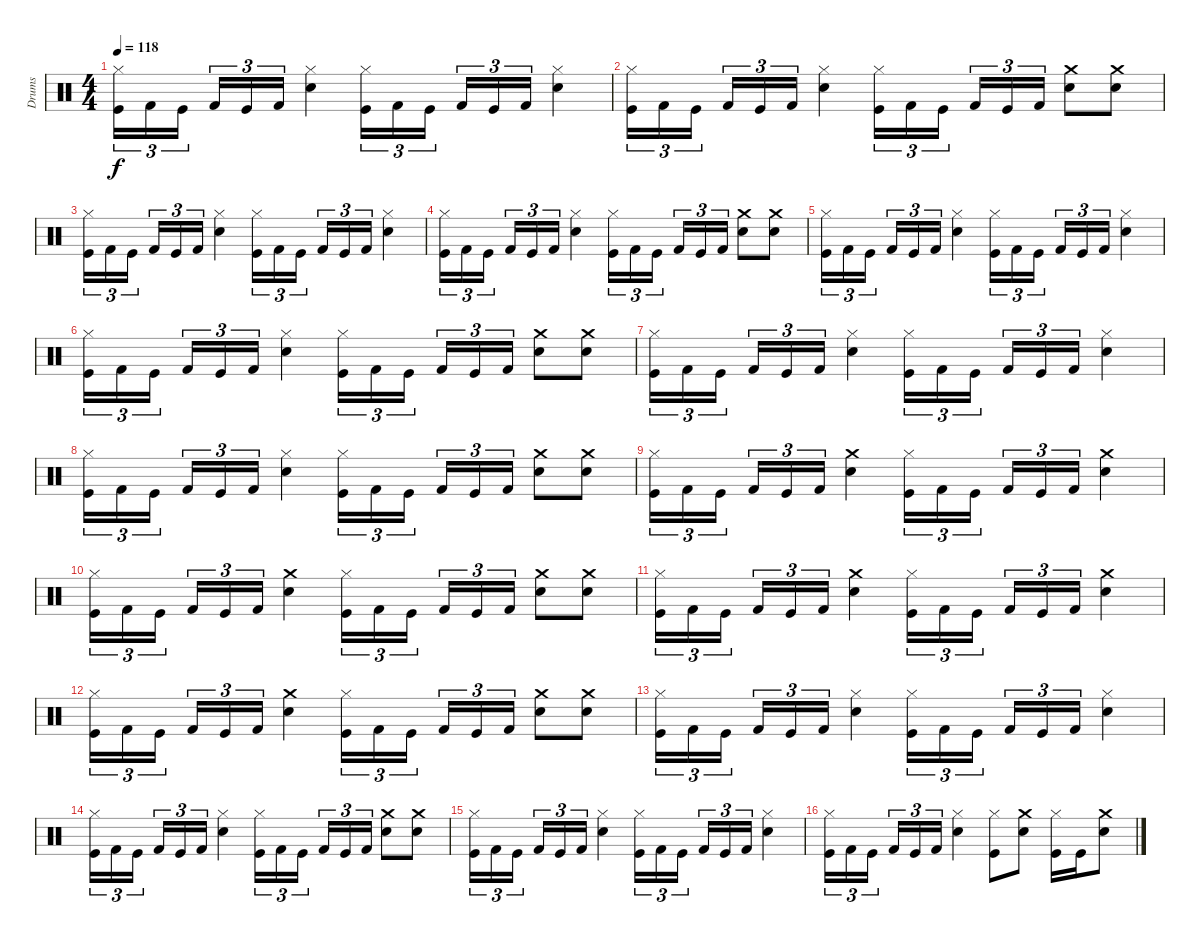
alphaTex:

\track ("Drums" "Drums") {instrument percussion}
\staff {score}
\articulation defaults
\ts (4 4)
\tempo 118
\clef neutral
\ks c
("Hi-Hat (closed)" "Kick (hit)").16{tu (3 2) dy f} "Kick (hit) 2".16{tu (3 2)} "Kick (hit)".16{tu (3 2)} "Kick (hit) 2".16{tu (3 2)} "Kick (hit)".16{tu (3 2)} "Kick (hit) 2".16{tu (3 2)} ("Snare (hit) 2" "Hi-Hat (closed)").4 ("Hi-Hat (closed)" "Kick (hit)").16{tu (3 2)} "Kick (hit) 2".16{tu (3 2)} "Kick (hit)".16{tu (3 2)} "Kick (hit) 2".16{tu (3 2)} "Kick (hit)".16{tu (3 2)} "Kick (hit) 2".16{tu (3 2)} ("Snare (hit) 2" "Hi-Hat (closed)").4 |
("Hi-Hat (closed)" "Kick (hit)").16{tu (3 2)} "Kick (hit) 2".16{tu (3 2)} "Kick (hit)".16{tu (3 2)} "Kick (hit) 2".16{tu (3 2)} "Kick (hit)".16{tu (3 2)} "Kick (hit) 2".16{tu (3 2)} ("Snare (hit) 2" "Hi-Hat (closed)").4 ("Hi-Hat (closed)" "Kick (hit)").16{tu (3 2)} "Kick (hit) 2".16{tu (3 2)} "Kick (hit)".16{tu (3 2)} "Kick (hit) 2".16{tu (3 2)} "Kick (hit)".16{tu (3 2)} "Kick (hit) 2".16{tu (3 2)} ("Snare (hit) 2" "Crash medium (hit)").8 ("Snare (hit) 2" "Crash medium (hit)").8 |
("Hi-Hat (closed)" "Kick (hit)").16{tu (3 2)} "Kick (hit) 2".16{tu (3 2)} "Kick (hit)".16{tu (3 2)} "Kick (hit) 2".16{tu (3 2)} "Kick (hit)".16{tu (3 2)} "Kick (hit) 2".16{tu (3 2)} ("Snare (hit) 2" "Hi-Hat (closed)").4 ("Hi-Hat (closed)" "Kick (hit)").16{tu (3 2)} "Kick (hit) 2".16{tu (3 2)} "Kick (hit)".16{tu (3 2)} "Kick (hit) 2".16{tu (3 2)} "Kick (hit)".16{tu (3 2)} "Kick (hit) 2".16{tu (3 2)} ("Snare (hit) 2" "Hi-Hat (closed)").4 |
("Hi-Hat (closed)" "Kick (hit)").16{tu (3 2)} "Kick (hit) 2".16{tu (3 2)} "Kick (hit)".16{tu (3 2)} "Kick (hit) 2".16{tu (3 2)} "Kick (hit)".16{tu (3 2)} "Kick (hit) 2".16{tu (3 2)} ("Snare (hit) 2" "Hi-Hat (closed)").4 ("Hi-Hat (closed)" "Kick (hit)").16{tu (3 2)} "Kick (hit) 2".16{tu (3 2)} "Kick (hit)".16{tu (3 2)} "Kick (hit) 2".16{tu (3 2)} "Kick (hit)".16{tu (3 2)} "Kick (hit) 2".16{tu (3 2)} ("Snare (hit) 2" "Crash medium (hit)").8 ("Snare (hit) 2" "Crash medium (hit)").8 |
("Hi-Hat (closed)" "Kick (hit)").16{tu (3 2)} "Kick (hit) 2".16{tu (3 2)} "Kick (hit)".16{tu (3 2)} "Kick (hit) 2".16{tu (3 2)} "Kick (hit)".16{tu (3 2)} "Kick (hit) 2".16{tu (3 2)} ("Snare (hit) 2" "Hi-Hat (closed)").4 ("Hi-Hat (closed)" "Kick (hit)").16{tu (3 2)} "Kick (hit) 2".16{tu (3 2)} "Kick (hit)".16{tu (3 2)} "Kick (hit) 2".16{tu (3 2)} "Kick (hit)".16{tu (3 2)} "Kick (hit) 2".16{tu (3 2)} ("Snare (hit) 2" "Hi-Hat (closed)").4 |
("Hi-Hat (closed)" "Kick (hit)").16{tu (3 2)} "Kick (hit) 2".16{tu (3 2)} "Kick (hit)".16{tu (3 2)} "Kick (hit) 2".16{tu (3 2)} "Kick (hit)".16{tu (3 2)} "Kick (hit) 2".16{tu (3 2)} ("Snare (hit) 2" "Hi-Hat (closed)").4 ("Hi-Hat (closed)" "Kick (hit)").16{tu (3 2)} "Kick (hit) 2".16{tu (3 2)} "Kick (hit)".16{tu (3 2)} "Kick (hit) 2".16{tu (3 2)} "Kick (hit)".16{tu (3 2)} "Kick (hit) 2".16{tu (3 2)} ("Snare (hit) 2" "Crash medium (hit)").8 ("Snare (hit) 2" "Crash medium (hit)").8 |
("Hi-Hat (closed)" "Kick (hit)").16{tu (3 2)} "Kick (hit) 2".16{tu (3 2)} "Kick (hit)".16{tu (3 2)} "Kick (hit) 2".16{tu (3 2)} "Kick (hit)".16{tu (3 2)} "Kick (hit) 2".16{tu (3 2)} ("Snare (hit) 2" "Hi-Hat (closed)").4 ("Hi-Hat (closed)" "Kick (hit)").16{tu (3 2)} "Kick (hit) 2".16{tu (3 2)} "Kick (hit)".16{tu (3 2)} "Kick (hit) 2".16{tu (3 2)} "Kick (hit)".16{tu (3 2)} "Kick (hit) 2".16{tu (3 2)} ("Snare (hit) 2" "Hi-Hat (closed)").4 |
("Hi-Hat (closed)" "Kick (hit)").16{tu (3 2)} "Kick (hit) 2".16{tu (3 2)} "Kick (hit)".16{tu (3 2)} "Kick (hit) 2".16{tu (3 2)} "Kick (hit)".16{tu (3 2)} "Kick (hit) 2".16{tu (3 2)} ("Snare (hit) 2" "Hi-Hat (closed)").4 ("Hi-Hat (closed)" "Kick (hit)").16{tu (3 2)} "Kick (hit) 2".16{tu (3 2)} "Kick (hit)".16{tu (3 2)} "Kick (hit) 2".16{tu (3 2)} "Kick (hit)".16{tu (3 2)} "Kick (hit) 2".16{tu (3 2)} ("Snare (hit) 2" "Crash medium (hit)").8 ("Snare (hit) 2" "Crash medium (hit)").8 |
("Hi-Hat (closed)" "Kick (hit)").16{tu (3 2)} "Kick (hit) 2".16{tu (3 2)} "Kick (hit)".16{tu (3 2)} "Kick (hit) 2".16{tu (3 2)} "Kick (hit)".16{tu (3 2)} "Kick (hit) 2".16{tu (3 2)} ("Crash medium (hit)" "Snare (hit) 2").4 ("Hi-Hat (closed)" "Kick (hit)").16{tu (3 2)} "Kick (hit) 2".16{tu (3 2)} "Kick (hit)".16{tu (3 2)} "Kick (hit) 2".16{tu (3 2)} "Kick (hit)".16{tu (3 2)} "Kick (hit) 2".16{tu (3 2)} ("Crash medium (hit)" "Snare (hit) 2").4 |
("Hi-Hat (closed)" "Kick (hit)").16{tu (3 2)} "Kick (hit) 2".16{tu (3 2)} "Kick (hit)".16{tu (3 2)} "Kick (hit) 2".16{tu (3 2)} "Kick (hit)".16{tu (3 2)} "Kick (hit) 2".16{tu (3 2)} ("Crash medium (hit)" "Snare (hit) 2").4 ("Hi-Hat (closed)" "Kick (hit)").16{tu (3 2)} "Kick (hit) 2".16{tu (3 2)} "Kick (hit)".16{tu (3 2)} "Kick (hit) 2".16{tu (3 2)} "Kick (hit)".16{tu (3 2)} "Kick (hit) 2".16{tu (3 2)} ("Snare (hit) 2" "Crash medium (hit)").8 ("Snare (hit) 2" "Crash medium (hit)").8 |
("Hi-Hat (closed)" "Kick (hit)").16{tu (3 2)} "Kick (hit) 2".16{tu (3 2)} "Kick (hit)".16{tu (3 2)} "Kick (hit) 2".16{tu (3 2)} "Kick (hit)".16{tu (3 2)} "Kick (hit) 2".16{tu (3 2)} ("Crash medium (hit)" "Snare (hit) 2").4 ("Hi-Hat (closed)" "Kick (hit)").16{tu (3 2)} "Kick (hit) 2".16{tu (3 2)} "Kick (hit)".16{tu (3 2)} "Kick (hit) 2".16{tu (3 2)} "Kick (hit)".16{tu (3 2)} "Kick (hit) 2".16{tu (3 2)} ("Crash medium (hit)" "Snare (hit) 2").4 |
("Hi-Hat (closed)" "Kick (hit)").16{tu (3 2)} "Kick (hit) 2".16{tu (3 2)} "Kick (hit)".16{tu (3 2)} "Kick (hit) 2".16{tu (3 2)} "Kick (hit)".16{tu (3 2)} "Kick (hit) 2".16{tu (3 2)} ("Crash medium (hit)" "Snare (hit) 2").4 ("Hi-Hat (closed)" "Kick (hit)").16{tu (3 2)} "Kick (hit) 2".16{tu (3 2)} "Kick (hit)".16{tu (3 2)} "Kick (hit) 2".16{tu (3 2)} "Kick (hit)".16{tu (3 2)} "Kick (hit) 2".16{tu (3 2)} ("Snare (hit) 2" "Crash medium (hit)").8 ("Snare (hit) 2" "Crash medium (hit)").8 |
("Hi-Hat (closed)" "Kick (hit)").16{tu (3 2)} "Kick (hit) 2".16{tu (3 2)} "Kick (hit)".16{tu (3 2)} "Kick (hit) 2".16{tu (3 2)} "Kick (hit)".16{tu (3 2)} "Kick (hit) 2".16{tu (3 2)} ("Snare (hit) 2" "Hi-Hat (closed)").4 ("Hi-Hat (closed)" "Kick (hit)").16{tu (3 2)} "Kick (hit) 2".16{tu (3 2)} "Kick (hit)".16{tu (3 2)} "Kick (hit) 2".16{tu (3 2)} "Kick (hit)".16{tu (3 2)} "Kick (hit) 2".16{tu (3 2)} ("Snare (hit) 2" "Hi-Hat (closed)").4 |
("Hi-Hat (closed)" "Kick (hit)").16{tu (3 2)} "Kick (hit) 2".16{tu (3 2)} "Kick (hit)".16{tu (3 2)} "Kick (hit) 2".16{tu (3 2)} "Kick (hit)".16{tu (3 2)} "Kick (hit) 2".16{tu (3 2)} ("Snare (hit) 2" "Hi-Hat (closed)").4 ("Hi-Hat (closed)" "Kick (hit)").16{tu (3 2)} "Kick (hit) 2".16{tu (3 2)} "Kick (hit)".16{tu (3 2)} "Kick (hit) 2".16{tu (3 2)} "Kick (hit)".16{tu (3 2)} "Kick (hit) 2".16{tu (3 2)} ("Snare (hit) 2" "Crash medium (hit)").8 ("Snare (hit) 2" "Crash medium (hit)").8 |
("Hi-Hat (closed)" "Kick (hit)").16{tu (3 2)} "Kick (hit) 2".16{tu (3 2)} "Kick (hit)".16{tu (3 2)} "Kick (hit) 2".16{tu (3 2)} "Kick (hit)".16{tu (3 2)} "Kick (hit) 2".16{tu (3 2)} ("Snare (hit) 2" "Hi-Hat (closed)").4 ("Hi-Hat (closed)" "Kick (hit)").16{tu (3 2)} "Kick (hit) 2".16{tu (3 2)} "Kick (hit)".16{tu (3 2)} "Kick (hit) 2".16{tu (3 2)} "Kick (hit)".16{tu (3 2)} "Kick (hit) 2".16{tu (3 2)} ("Snare (hit) 2" "Hi-Hat (closed)").4 |
("Hi-Hat (closed)" "Kick (hit)").16{tu (3 2)} "Kick (hit) 2".16{tu (3 2)} "Kick (hit)".16{tu (3 2)} "Kick (hit) 2".16{tu (3 2)} "Kick (hit)".16{tu (3 2)} "Kick (hit) 2".16{tu (3 2)} ("Snare (hit) 2" "Hi-Hat (closed)").4 ("Kick (hit)" "Hi-Hat (closed)").8 ("Snare (hit) 2" "Crash medium (hit)").8 ("Kick (hit)" "Hi-Hat (closed)").16 "Kick (hit)".16 ("Crash medium (hit)" "Snare (hit) 2").8
